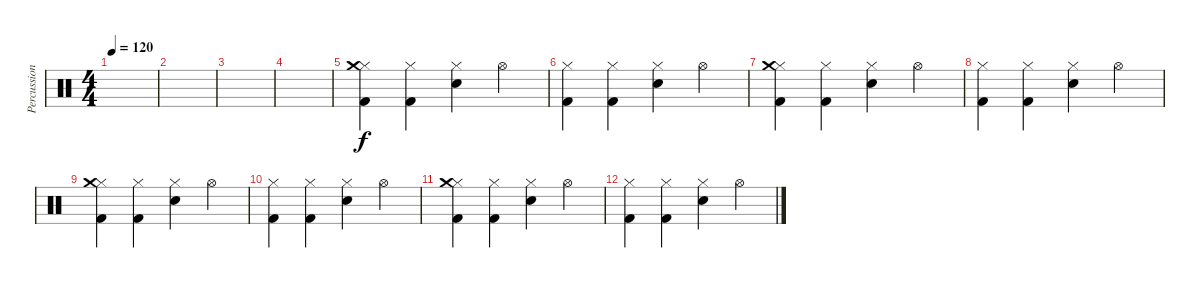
\track ("Percussion" "Percussion") {instrument percussion}
\staff {score}
\articulation defaults
\ts (4 4)
\tempo 120
\clef neutral
\ks c
|
|
|
|
("Hi-Hat (closed)" "Kick (hit) 2" "Crash medium (hit)").4 ("Hi-Hat (closed)" "Kick (hit) 2").4 ("Hi-Hat (closed)" "Snare (hit) 2").4 "Hi-Hat (open)".4 |
("Hi-Hat (closed)" "Kick (hit) 2").4 ("Hi-Hat (closed)" "Kick (hit) 2").4 ("Hi-Hat (closed)" "Snare (hit) 2").4 "Hi-Hat (open)".4 |
("Hi-Hat (closed)" "Kick (hit) 2" "Crash medium (hit)").4 ("Hi-Hat (closed)" "Kick (hit) 2").4 ("Hi-Hat (closed)" "Snare (hit) 2").4 "Hi-Hat (open)".4 |
("Hi-Hat (closed)" "Kick (hit) 2").4 ("Hi-Hat (closed)" "Kick (hit) 2").4 ("Hi-Hat (closed)" "Snare (hit) 2").4 "Hi-Hat (open)".4 |
("Hi-Hat (closed)" "Kick (hit) 2" "Crash medium (hit)").4 ("Hi-Hat (closed)" "Kick (hit) 2").4 ("Hi-Hat (closed)" "Snare (hit) 2").4 "Hi-Hat (open)".4 |
("Hi-Hat (closed)" "Kick (hit) 2").4 ("Hi-Hat (closed)" "Kick (hit) 2").4 ("Hi-Hat (closed)" "Snare (hit) 2").4 "Hi-Hat (open)".4 |
("Hi-Hat (closed)" "Kick (hit) 2" "Crash medium (hit)").4 ("Hi-Hat (closed)" "Kick (hit) 2").4 ("Hi-Hat (closed)" "Snare (hit) 2").4 "Hi-Hat (open)".4 |
("Hi-Hat (closed)" "Kick (hit) 2").4 ("Hi-Hat (closed)" "Kick (hit) 2").4 ("Hi-Hat (closed)" "Snare (hit) 2").4 "Hi-Hat (open)".4
